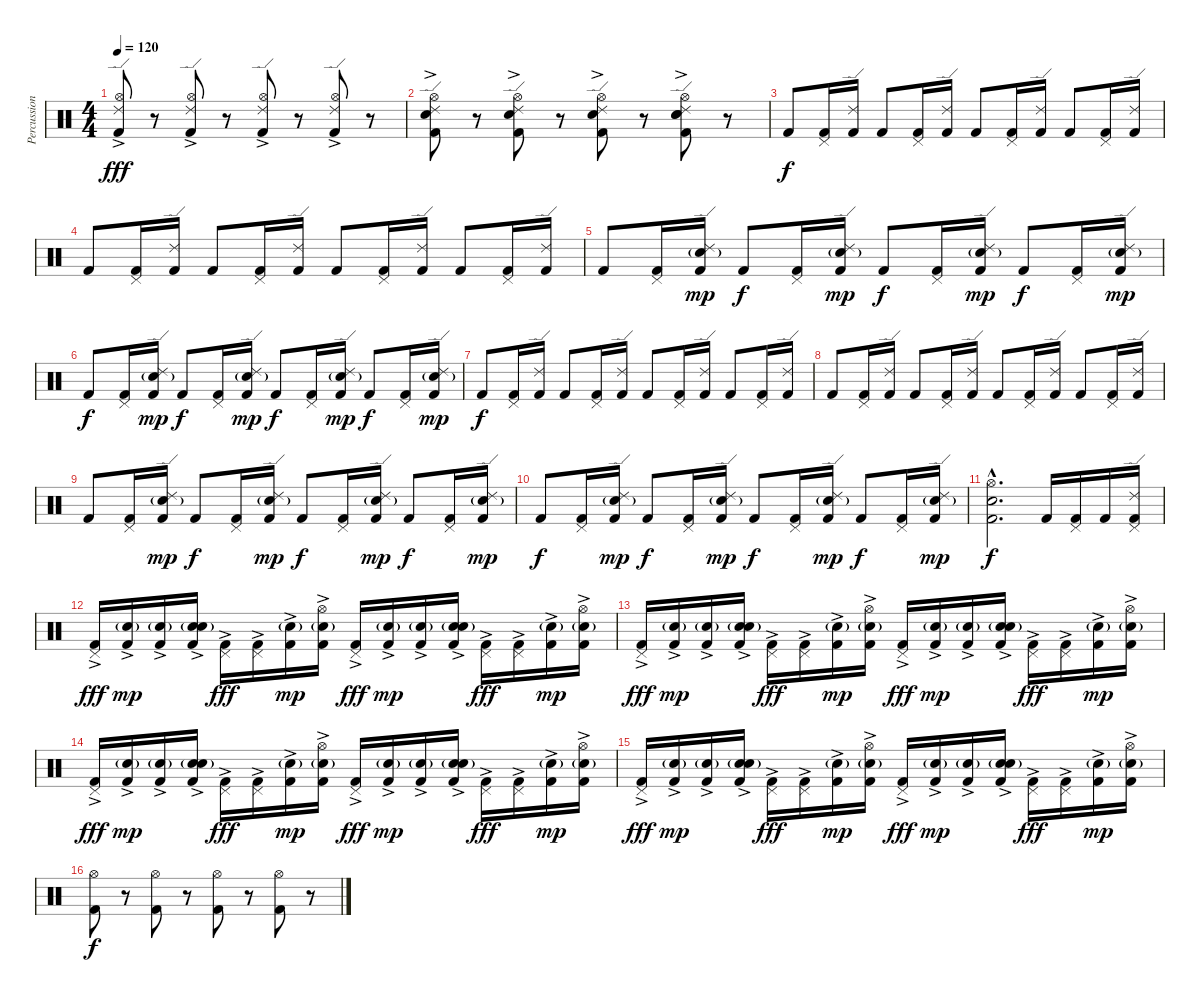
\track ("Percussions" "Percussion") {instrument percussion}
\staff {score}
\articulation defaults
\ts (4 4)
\tempo 120
\clef neutral
\ks c
("Ride (edge) 2" "Hi-Hat (open)" "Kick (hit) 2"{ac}).8{dy fff} r.8 ("Ride (edge) 2" "Hi-Hat (open)" "Kick (hit) 2"{ac}).8 r.8 ("Ride (edge) 2" "Hi-Hat (open)" "Kick (hit) 2"{ac}).8 r.8 ("Ride (edge) 2" "Hi-Hat (open)" "Kick (hit) 2"{ac}).8 r.8 |
("Ride (edge) 2" "Hi-Hat (open)" "Kick (hit) 2"{ac} "Electric Snare (hit)").8 r.8 ("Ride (edge) 2" "Hi-Hat (open)" "Kick (hit) 2"{ac} "Electric Snare (hit)").8 r.8 ("Ride (edge) 2" "Hi-Hat (open)" "Kick (hit) 2"{ac} "Electric Snare (hit)").8 r.8 ("Ride (edge) 2" "Hi-Hat (open)" "Kick (hit) 2"{ac} "Electric Snare (hit)" "Snare (hit) 2").8 r.8 |
"Kick (hit) 2".8{dy f} ("Kick (hit) 2" "Pedal Hi-Hat (hit)").16 ("Kick (hit) 2" "Ride (edge) 2").16 "Kick (hit) 2".8 ("Kick (hit) 2" "Pedal Hi-Hat (hit)").16 ("Kick (hit) 2" "Ride (edge) 2").16 "Kick (hit) 2".8 ("Kick (hit) 2" "Pedal Hi-Hat (hit)").16 ("Kick (hit) 2" "Ride (edge) 2").16 "Kick (hit) 2".8 ("Kick (hit) 2" "Pedal Hi-Hat (hit)").16 ("Kick (hit) 2" "Ride (edge) 2").16 |
"Kick (hit) 2".8 ("Kick (hit) 2" "Pedal Hi-Hat (hit)").16 ("Kick (hit) 2" "Ride (edge) 2").16 "Kick (hit) 2".8 ("Kick (hit) 2" "Pedal Hi-Hat (hit)").16 ("Kick (hit) 2" "Ride (edge) 2").16 "Kick (hit) 2".8 ("Kick (hit) 2" "Pedal Hi-Hat (hit)").16 ("Kick (hit) 2" "Ride (edge) 2").16 "Kick (hit) 2".8 ("Kick (hit) 2" "Pedal Hi-Hat (hit)").16 ("Kick (hit) 2" "Ride (edge) 2").16 |
"Kick (hit) 2".8 ("Kick (hit) 2" "Pedal Hi-Hat (hit)").16 ("Kick (hit) 2" "Ride (edge) 2" "Electric Snare (hit)"{g}).16{dy mp} "Kick (hit) 2".8{dy f} ("Kick (hit) 2" "Pedal Hi-Hat (hit)").16 ("Kick (hit) 2" "Ride (edge) 2" "Electric Snare (hit)"{g}).16{dy mp} "Kick (hit) 2".8{dy f} ("Kick (hit) 2" "Pedal Hi-Hat (hit)").16 ("Kick (hit) 2" "Ride (edge) 2" "Electric Snare (hit)"{g}).16{dy mp} "Kick (hit) 2".8{dy f} ("Kick (hit) 2" "Pedal Hi-Hat (hit)").16 ("Kick (hit) 2" "Ride (edge) 2" "Electric Snare (hit)"{g}).16{dy mp} |
"Kick (hit) 2".8{dy f} ("Kick (hit) 2" "Pedal Hi-Hat (hit)").16 ("Kick (hit) 2" "Ride (edge) 2" "Electric Snare (hit)"{g}).16{dy mp} "Kick (hit) 2".8{dy f} ("Kick (hit) 2" "Pedal Hi-Hat (hit)").16 ("Kick (hit) 2" "Ride (edge) 2" "Electric Snare (hit)"{g}).16{dy mp} "Kick (hit) 2".8{dy f} ("Kick (hit) 2" "Pedal Hi-Hat (hit)").16 ("Kick (hit) 2" "Ride (edge) 2" "Electric Snare (hit)"{g}).16{dy mp} "Kick (hit) 2".8{dy f} ("Kick (hit) 2" "Pedal Hi-Hat (hit)").16 ("Kick (hit) 2" "Ride (edge) 2" "Electric Snare (hit)"{g}).16{dy mp} |
"Kick (hit) 2".8{dy f} ("Kick (hit) 2" "Pedal Hi-Hat (hit)").16 ("Kick (hit) 2" "Ride (edge) 2").16 "Kick (hit) 2".8 ("Kick (hit) 2" "Pedal Hi-Hat (hit)").16 ("Kick (hit) 2" "Ride (edge) 2").16 "Kick (hit) 2".8 ("Kick (hit) 2" "Pedal Hi-Hat (hit)").16 ("Kick (hit) 2" "Ride (edge) 2").16 "Kick (hit) 2".8 ("Kick (hit) 2" "Pedal Hi-Hat (hit)").16 ("Kick (hit) 2" "Ride (edge) 2").16 |
"Kick (hit) 2".8 ("Kick (hit) 2" "Pedal Hi-Hat (hit)").16 ("Kick (hit) 2" "Ride (edge) 2").16 "Kick (hit) 2".8 ("Kick (hit) 2" "Pedal Hi-Hat (hit)").16 ("Kick (hit) 2" "Ride (edge) 2").16 "Kick (hit) 2".8 ("Kick (hit) 2" "Pedal Hi-Hat (hit)").16 ("Kick (hit) 2" "Ride (edge) 2").16 "Kick (hit) 2".8 ("Kick (hit) 2" "Pedal Hi-Hat (hit)").16 ("Kick (hit) 2" "Ride (edge) 2").16 |
"Kick (hit) 2".8 ("Kick (hit) 2" "Pedal Hi-Hat (hit)").16 ("Kick (hit) 2" "Ride (edge) 2" "Electric Snare (hit)"{g}).16{dy mp} "Kick (hit) 2".8{dy f} ("Kick (hit) 2" "Pedal Hi-Hat (hit)").16 ("Kick (hit) 2" "Ride (edge) 2" "Electric Snare (hit)"{g}).16{dy mp} "Kick (hit) 2".8{dy f} ("Kick (hit) 2" "Pedal Hi-Hat (hit)").16 ("Kick (hit) 2" "Ride (edge) 2" "Electric Snare (hit)"{g}).16{dy mp} "Kick (hit) 2".8{dy f} ("Kick (hit) 2" "Pedal Hi-Hat (hit)").16 ("Kick (hit) 2" "Ride (edge) 2" "Electric Snare (hit)"{g}).16{dy mp} |
"Kick (hit) 2".8{dy f} ("Kick (hit) 2" "Pedal Hi-Hat (hit)").16 ("Kick (hit) 2" "Ride (edge) 2" "Electric Snare (hit)"{g}).16{dy mp} "Kick (hit) 2".8{dy f} ("Kick (hit) 2" "Pedal Hi-Hat (hit)").16 ("Kick (hit) 2" "Ride (edge) 2" "Electric Snare (hit)"{g}).16{dy mp} "Kick (hit) 2".8{dy f} ("Kick (hit) 2" "Pedal Hi-Hat (hit)").16 ("Kick (hit) 2" "Ride (edge) 2" "Electric Snare (hit)"{g}).16{dy mp} "Kick (hit) 2".8{dy f} ("Kick (hit) 2" "Pedal Hi-Hat (hit)").16 ("Kick (hit) 2" "Ride (edge) 2" "Electric Snare (hit)"{g}).16{dy mp} |
("Electric Snare (hit)"{hac} "Kick (hit) 2"{hac} "Hi-Hat (open)"{hac}).2{d dy f} "Kick (hit) 2".16 ("Kick (hit) 2" "Pedal Hi-Hat (hit)").16 "Kick (hit) 2".16 ("Kick (hit) 2" "Pedal Hi-Hat (hit)" "Ride (edge) 2").16 |
("Kick (hit) 2"{ac} "Pedal Hi-Hat (hit)").16{dy fff} ("Kick (hit) 2"{ac} "Electric Snare (hit)"{g}).16{dy mp} ("Kick (hit) 2"{ac} "Electric Snare (hit)"{g}).16 ("Kick (hit) 2"{ac} "Electric Snare (hit)"{g} "Snare (hit) 2"{g}).16 ("Kick (hit) 2"{ac} "Pedal Hi-Hat (hit)").16{dy fff} ("Kick (hit) 2"{ac} "Pedal Hi-Hat (hit)").16 ("Kick (hit) 2"{ac} "Electric Snare (hit)"{g}).16{dy mp} ("Kick (hit) 2"{ac} "Electric Snare (hit)"{g} "Hi-Hat (open)").16 ("Kick (hit) 2"{ac} "Pedal Hi-Hat (hit)").16{dy fff} ("Kick (hit) 2"{ac} "Electric Snare (hit)"{g}).16{dy mp} ("Kick (hit) 2"{ac} "Electric Snare (hit)"{g}).16 ("Kick (hit) 2"{ac} "Electric Snare (hit)"{g} "Snare (hit) 2"{g}).16 ("Kick (hit) 2"{ac} "Pedal Hi-Hat (hit)").16{dy fff} ("Kick (hit) 2"{ac} "Pedal Hi-Hat (hit)").16 ("Kick (hit) 2"{ac} "Electric Snare (hit)"{g}).16{dy mp} ("Kick (hit) 2"{ac} "Electric Snare (hit)"{g} "Hi-Hat (open)").16 |
("Kick (hit) 2"{ac} "Pedal Hi-Hat (hit)").16{dy fff} ("Kick (hit) 2"{ac} "Electric Snare (hit)"{g}).16{dy mp} ("Kick (hit) 2"{ac} "Electric Snare (hit)"{g}).16 ("Kick (hit) 2"{ac} "Electric Snare (hit)"{g} "Snare (hit) 2"{g}).16 ("Kick (hit) 2"{ac} "Pedal Hi-Hat (hit)").16{dy fff} ("Kick (hit) 2"{ac} "Pedal Hi-Hat (hit)").16 ("Kick (hit) 2"{ac} "Electric Snare (hit)"{g}).16{dy mp} ("Kick (hit) 2"{ac} "Electric Snare (hit)"{g} "Hi-Hat (open)").16 ("Kick (hit) 2"{ac} "Pedal Hi-Hat (hit)").16{dy fff} ("Kick (hit) 2"{ac} "Electric Snare (hit)"{g}).16{dy mp} ("Kick (hit) 2"{ac} "Electric Snare (hit)"{g}).16 ("Kick (hit) 2"{ac} "Electric Snare (hit)"{g} "Snare (hit) 2"{g}).16 ("Kick (hit) 2"{ac} "Pedal Hi-Hat (hit)").16{dy fff} ("Kick (hit) 2"{ac} "Pedal Hi-Hat (hit)").16 ("Kick (hit) 2"{ac} "Electric Snare (hit)"{g}).16{dy mp} ("Kick (hit) 2"{ac} "Electric Snare (hit)"{g} "Hi-Hat (open)").16 |
("Kick (hit) 2"{ac} "Pedal Hi-Hat (hit)").16{dy fff} ("Kick (hit) 2"{ac} "Electric Snare (hit)"{g}).16{dy mp} ("Kick (hit) 2"{ac} "Electric Snare (hit)"{g}).16 ("Kick (hit) 2"{ac} "Electric Snare (hit)"{g} "Snare (hit) 2"{g}).16 ("Kick (hit) 2"{ac} "Pedal Hi-Hat (hit)").16{dy fff} ("Kick (hit) 2"{ac} "Pedal Hi-Hat (hit)").16 ("Kick (hit) 2"{ac} "Electric Snare (hit)"{g}).16{dy mp} ("Kick (hit) 2"{ac} "Electric Snare (hit)"{g} "Hi-Hat (open)").16 ("Kick (hit) 2"{ac} "Pedal Hi-Hat (hit)").16{dy fff} ("Kick (hit) 2"{ac} "Electric Snare (hit)"{g}).16{dy mp} ("Kick (hit) 2"{ac} "Electric Snare (hit)"{g}).16 ("Kick (hit) 2"{ac} "Electric Snare (hit)"{g} "Snare (hit) 2"{g}).16 ("Kick (hit) 2"{ac} "Pedal Hi-Hat (hit)").16{dy fff} ("Kick (hit) 2"{ac} "Pedal Hi-Hat (hit)").16 ("Kick (hit) 2"{ac} "Electric Snare (hit)"{g}).16{dy mp} ("Kick (hit) 2"{ac} "Electric Snare (hit)"{g} "Hi-Hat (open)").16 |
("Kick (hit) 2"{ac} "Pedal Hi-Hat (hit)").16{dy fff} ("Kick (hit) 2"{ac} "Electric Snare (hit)"{g}).16{dy mp} ("Kick (hit) 2"{ac} "Electric Snare (hit)"{g}).16 ("Kick (hit) 2"{ac} "Electric Snare (hit)"{g} "Snare (hit) 2"{g}).16 ("Kick (hit) 2"{ac} "Pedal Hi-Hat (hit)").16{dy fff} ("Kick (hit) 2"{ac} "Pedal Hi-Hat (hit)").16 ("Kick (hit) 2"{ac} "Electric Snare (hit)"{g}).16{dy mp} ("Kick (hit) 2"{ac} "Electric Snare (hit)"{g} "Hi-Hat (open)").16 ("Kick (hit) 2"{ac} "Pedal Hi-Hat (hit)").16{dy fff} ("Kick (hit) 2"{ac} "Electric Snare (hit)"{g}).16{dy mp} ("Kick (hit) 2"{ac} "Electric Snare (hit)"{g}).16 ("Kick (hit) 2"{ac} "Electric Snare (hit)"{g} "Snare (hit) 2"{g}).16 ("Kick (hit) 2"{ac} "Pedal Hi-Hat (hit)").16{dy fff} ("Kick (hit) 2"{ac} "Pedal Hi-Hat (hit)").16 ("Kick (hit) 2"{ac} "Electric Snare (hit)"{g}).16{dy mp} ("Kick (hit) 2"{ac} "Electric Snare (hit)"{g} "Hi-Hat (open)").16 |
("Hi-Hat (open)" "Kick (hit) 2").8{dy f} r.8 ("Hi-Hat (open)" "Kick (hit) 2").8 r.8 ("Hi-Hat (open)" "Kick (hit) 2").8 r.8 ("Hi-Hat (open)" "Kick (hit) 2").8 r.8
